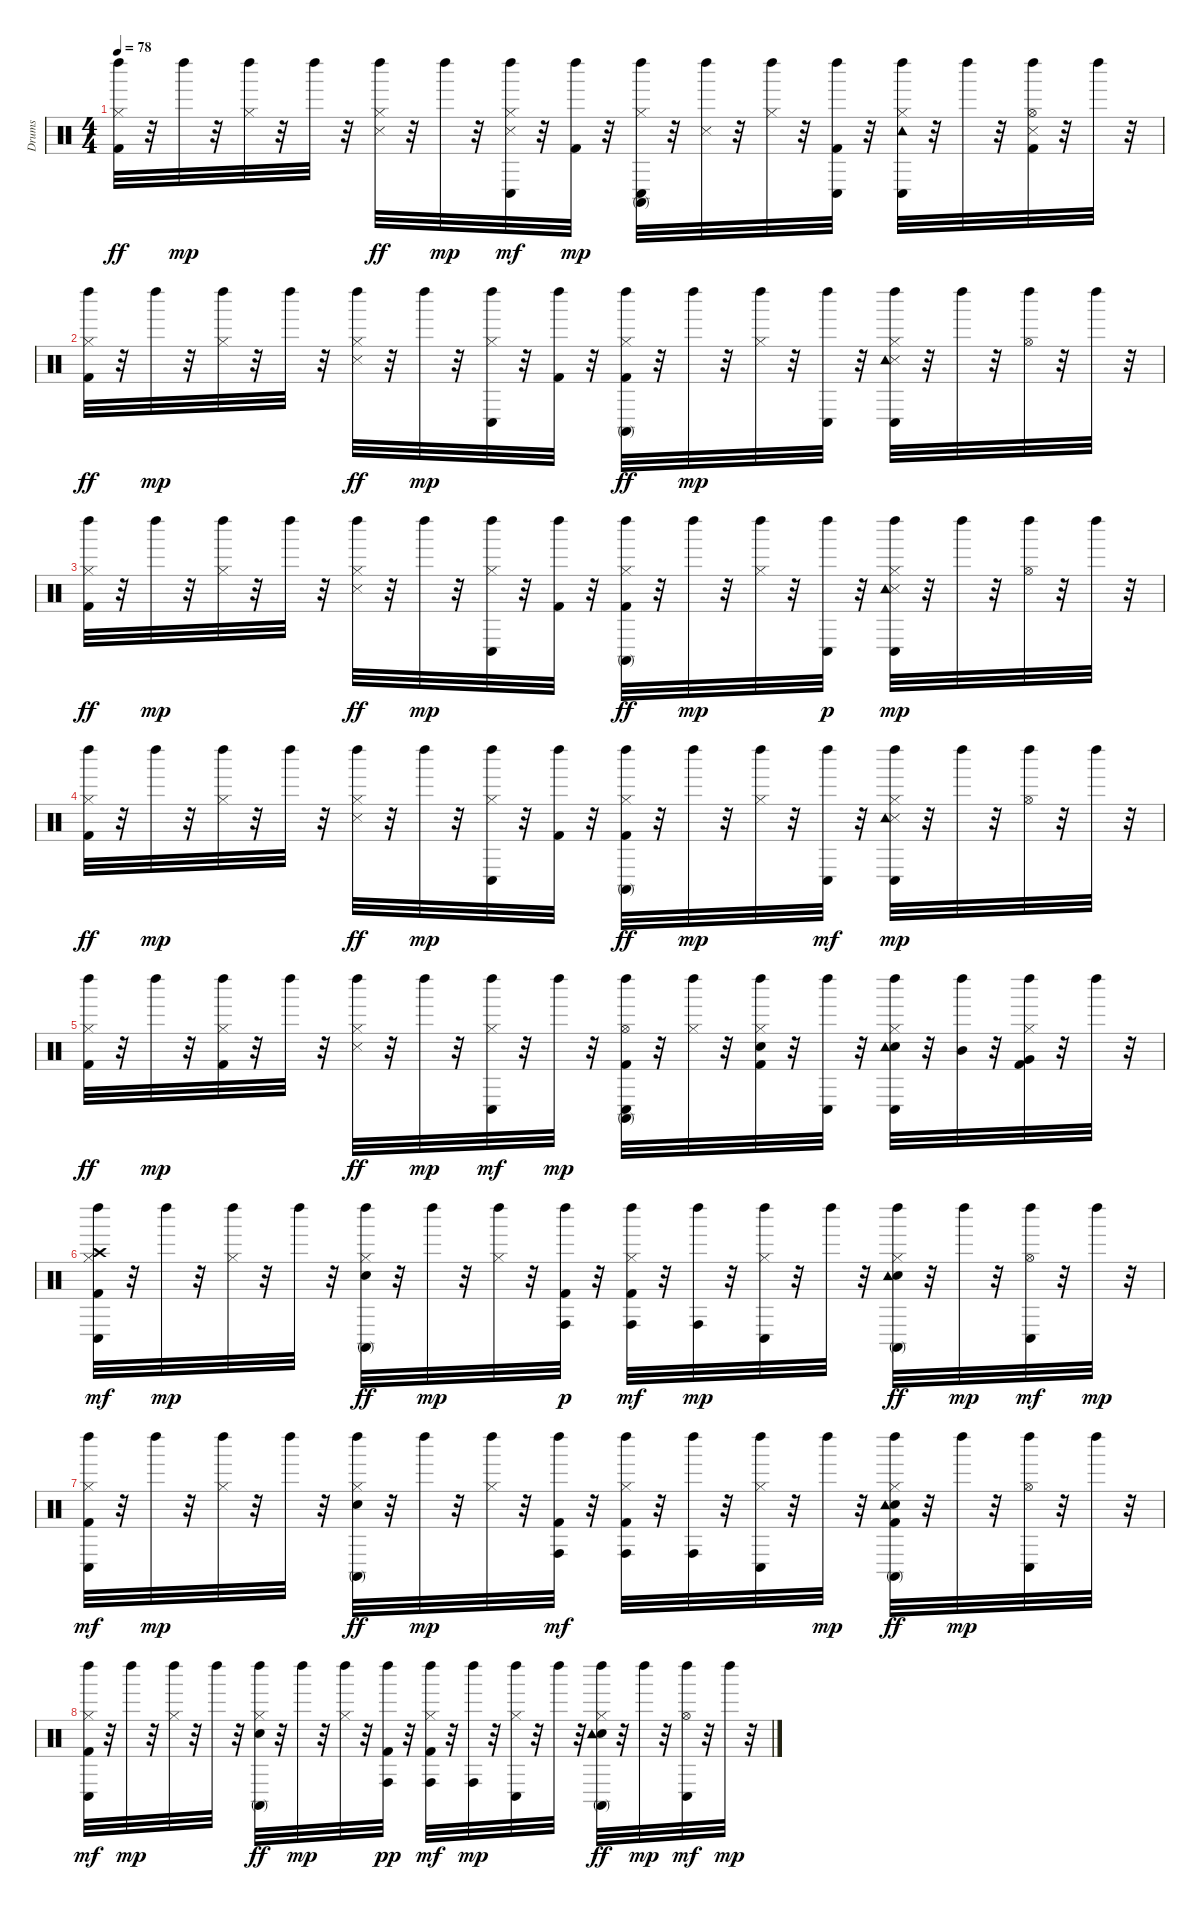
\track ("Drums               " "Drums     ") {instrument percussion}
\staff {score}
\articulation defaults
\ts (4 4)
\tempo 78
\clef neutral
\ks c
("Kick (hit) 2" "Hi-Hat (closed)" "Left Maraca (hit)").32{dy ff} r.32 "Left Maraca (hit)".32{dy mp} r.32 ("Hi-Hat (closed)" "Left Maraca (hit)").32 r.32 "Left Maraca (hit)".32 r.32 ("Hi-Hat (closed)" "Left Maraca (hit)" "Snare (side stick) 3").32{dy ff} r.32 "Left Maraca (hit)".32{dy mp} r.32 ("Hi-Hat (closed)" "Left Maraca (hit)" "Snare (side stick) 3" "Conga low (hit)").32{dy mf} r.32 ("Kick (hit) 2" "Left Maraca (hit)").32{dy mp} r.32 ("Hi-Hat (closed)" "Left Maraca (hit)" "Conga high (mute)" "Conga low (hit)").32 r.32 ("Left Maraca (hit)" "Snare (side stick) 3").32 r.32 ("Hi-Hat (closed)" "Left Maraca (hit)").32 r.32 ("Kick (hit) 2" "Left Maraca (hit)" "Conga low (hit)").32 r.32 ("Hi-Hat (closed)" "Left Maraca (hit)" "Tambourine (hit)" "Conga low (hit)").32 r.32 "Left Maraca (hit)".32 r.32 ("Kick (hit) 2" "Hi-Hat (open)" "Left Maraca (hit)" "Snare (side stick) 3").32 r.32 "Left Maraca (hit)".32 r.32 |
("Kick (hit) 2" "Hi-Hat (closed)" "Left Maraca (hit)").32{dy ff} r.32 "Left Maraca (hit)".32{dy mp} r.32 ("Hi-Hat (closed)" "Left Maraca (hit)").32 r.32 "Left Maraca (hit)".32 r.32 ("Hi-Hat (closed)" "Left Maraca (hit)" "Snare (side stick) 3").32{dy ff} r.32 "Left Maraca (hit)".32{dy mp} r.32 ("Hi-Hat (closed)" "Left Maraca (hit)" "Conga low (hit)").32 r.32 ("Kick (hit) 2" "Left Maraca (hit)").32 r.32 ("Kick (hit) 2" "Hi-Hat (closed)" "Left Maraca (hit)" "Conga high (mute)").32{dy ff} r.32 "Left Maraca (hit)".32{dy mp} r.32 ("Hi-Hat (closed)" "Left Maraca (hit)").32 r.32 ("Left Maraca (hit)" "Conga low (hit)").32 r.32 ("Hi-Hat (closed)" "Left Maraca (hit)" "Snare (side stick) 3" "Tambourine (hit)" "Conga low (hit)").32 r.32 "Left Maraca (hit)".32 r.32 ("Hi-Hat (open)" "Left Maraca (hit)").32 r.32 "Left Maraca (hit)".32 r.32 |
("Kick (hit) 2" "Hi-Hat (closed)" "Left Maraca (hit)").32{dy ff} r.32 "Left Maraca (hit)".32{dy mp} r.32 ("Hi-Hat (closed)" "Left Maraca (hit)").32 r.32 "Left Maraca (hit)".32 r.32 ("Hi-Hat (closed)" "Left Maraca (hit)" "Snare (side stick) 3").32{dy ff} r.32 "Left Maraca (hit)".32{dy mp} r.32 ("Hi-Hat (closed)" "Left Maraca (hit)" "Conga low (hit)").32 r.32 ("Kick (hit) 2" "Left Maraca (hit)").32 r.32 ("Kick (hit) 2" "Hi-Hat (closed)" "Left Maraca (hit)" "Conga high (mute)").32{dy ff} r.32 "Left Maraca (hit)".32{dy mp} r.32 ("Hi-Hat (closed)" "Left Maraca (hit)").32 r.32 ("Left Maraca (hit)" "Conga low (hit)").32{dy p} r.32 ("Hi-Hat (closed)" "Left Maraca (hit)" "Snare (side stick) 3" "Tambourine (hit)" "Conga low (hit)").32{dy mp} r.32 "Left Maraca (hit)".32 r.32 ("Hi-Hat (open)" "Left Maraca (hit)").32 r.32 "Left Maraca (hit)".32 r.32 |
("Kick (hit) 2" "Hi-Hat (closed)" "Left Maraca (hit)").32{dy ff} r.32 "Left Maraca (hit)".32{dy mp} r.32 ("Hi-Hat (closed)" "Left Maraca (hit)").32 r.32 "Left Maraca (hit)".32 r.32 ("Hi-Hat (closed)" "Left Maraca (hit)" "Snare (side stick) 3").32{dy ff} r.32 "Left Maraca (hit)".32{dy mp} r.32 ("Hi-Hat (closed)" "Left Maraca (hit)" "Conga low (hit)").32 r.32 ("Kick (hit) 2" "Left Maraca (hit)").32 r.32 ("Kick (hit) 2" "Hi-Hat (closed)" "Left Maraca (hit)" "Conga high (mute)").32{dy ff} r.32 "Left Maraca (hit)".32{dy mp} r.32 ("Hi-Hat (closed)" "Left Maraca (hit)").32 r.32 ("Left Maraca (hit)" "Conga low (hit)").32{dy mf} r.32 ("Hi-Hat (closed)" "Left Maraca (hit)" "Snare (side stick) 3" "Tambourine (hit)" "Conga low (hit)").32{dy mp} r.32 "Left Maraca (hit)".32 r.32 ("Hi-Hat (open)" "Left Maraca (hit)").32 r.32 "Left Maraca (hit)".32 r.32 |
("Kick (hit) 2" "Hi-Hat (closed)" "Left Maraca (hit)").32{dy ff} r.32 "Left Maraca (hit)".32{dy mp} r.32 ("Kick (hit) 2" "Hi-Hat (closed)" "Left Maraca (hit)").32 r.32 "Left Maraca (hit)".32 r.32 ("Hi-Hat (closed)" "Left Maraca (hit)" "Snare (side stick) 3").32{dy ff} r.32 "Left Maraca (hit)".32{dy mp} r.32 ("Hi-Hat (closed)" "Left Maraca (hit)" "Conga low (hit)").32{dy mf} r.32 "Left Maraca (hit)".32{dy mp} r.32 ("Kick (hit) 2" "Hi-Hat (open)" "Left Maraca (hit)" "Conga high (mute)" "Conga low (hit)").32 r.32 ("Hi-Hat (closed)" "Left Maraca (hit)").32 r.32 ("Kick (hit) 2" "Snare (hit) 2" "Hi-Hat (closed)" "Left Maraca (hit)").32 r.32 ("Left Maraca (hit)" "Conga low (hit)").32 r.32 ("Snare (hit) 2" "Hi-Hat (closed)" "Left Maraca (hit)" "Tambourine (hit)" "Conga low (hit)").32 r.32 ("Left Maraca (hit)" "Mid Tom (hit)").32 r.32 ("Kick (hit) 2" "Hi-Hat (closed)" "Left Maraca (hit)" "Very Low Tom (hit)").32 r.32 "Left Maraca (hit)".32 r.32 |
("Kick (hit) 2" "Hi-Hat (closed)" "Left Maraca (hit)" "Crash high (hit)" "Conga low (hit)").32{dy mf} r.32 "Left Maraca (hit)".32{dy mp} r.32 ("Hi-Hat (closed)" "Left Maraca (hit)").32 r.32 "Left Maraca (hit)".32 r.32 ("Snare (hit) 2" "Hi-Hat (closed)" "Left Maraca (hit)" "Conga high (mute)").32{dy ff} r.32 "Left Maraca (hit)".32{dy mp} r.32 ("Hi-Hat (closed)" "Left Maraca (hit)").32 r.32 ("Kick (hit) 2" "Left Maraca (hit)" "Conga high (hit)").32{dy p} r.32 ("Kick (hit) 2" "Hi-Hat (closed)" "Left Maraca (hit)" "Conga high (hit)").32{dy mf} r.32 ("Left Maraca (hit)" "Conga high (hit)").32{dy mp} r.32 ("Hi-Hat (closed)" "Left Maraca (hit)" "Conga low (hit)").32 r.32 "Left Maraca (hit)".32 r.32 ("Snare (hit) 2" "Hi-Hat (closed)" "Left Maraca (hit)" "Conga high (mute)" "Tambourine (hit)").32{dy ff} r.32 "Left Maraca (hit)".32{dy mp} r.32 ("Hi-Hat (open)" "Left Maraca (hit)" "Conga low (hit)").32{dy mf} r.32 "Left Maraca (hit)".32{dy mp} r.32 |
("Kick (hit) 2" "Hi-Hat (closed)" "Left Maraca (hit)" "Conga low (hit)").32{dy mf} r.32 "Left Maraca (hit)".32{dy mp} r.32 ("Hi-Hat (closed)" "Left Maraca (hit)").32 r.32 "Left Maraca (hit)".32 r.32 ("Snare (hit) 2" "Hi-Hat (closed)" "Left Maraca (hit)" "Conga high (mute)").32{dy ff} r.32 "Left Maraca (hit)".32{dy mp} r.32 ("Hi-Hat (closed)" "Left Maraca (hit)").32 r.32 ("Kick (hit) 2" "Left Maraca (hit)" "Conga high (hit)").32{dy mf} r.32 ("Kick (hit) 2" "Hi-Hat (closed)" "Left Maraca (hit)" "Conga high (hit)").32 r.32 ("Left Maraca (hit)" "Conga high (hit)").32 r.32 ("Hi-Hat (closed)" "Left Maraca (hit)" "Conga low (hit)").32 r.32 "Left Maraca (hit)".32{dy mp} r.32 ("Kick (hit) 2" "Snare (hit) 2" "Hi-Hat (closed)" "Left Maraca (hit)" "Conga high (mute)" "Tambourine (hit)").32{dy ff} r.32 "Left Maraca (hit)".32{dy mp} r.32 ("Hi-Hat (open)" "Left Maraca (hit)" "Conga low (hit)").32 r.32 "Left Maraca (hit)".32 r.32 |
("Kick (hit) 2" "Hi-Hat (closed)" "Left Maraca (hit)" "Conga low (hit)").32{dy mf} r.32 "Left Maraca (hit)".32{dy mp} r.32 ("Hi-Hat (closed)" "Left Maraca (hit)").32 r.32 "Left Maraca (hit)".32 r.32 ("Snare (hit) 2" "Hi-Hat (closed)" "Left Maraca (hit)" "Conga high (mute)").32{dy ff} r.32 "Left Maraca (hit)".32{dy mp} r.32 ("Hi-Hat (closed)" "Left Maraca (hit)").32 r.32 ("Kick (hit) 2" "Left Maraca (hit)" "Conga high (hit)").32{dy pp} r.32 ("Kick (hit) 2" "Hi-Hat (closed)" "Left Maraca (hit)" "Conga high (hit)").32{dy mf} r.32 ("Left Maraca (hit)" "Conga high (hit)").32{dy mp} r.32 ("Hi-Hat (closed)" "Left Maraca (hit)" "Conga low (hit)").32 r.32 "Left Maraca (hit)".32 r.32 ("Snare (hit) 2" "Hi-Hat (closed)" "Left Maraca (hit)" "Conga high (mute)" "Tambourine (hit)").32{dy ff} r.32 "Left Maraca (hit)".32{dy mp} r.32 ("Hi-Hat (open)" "Left Maraca (hit)" "Conga low (hit)").32{dy mf} r.32 "Left Maraca (hit)".32{dy mp} r.32
